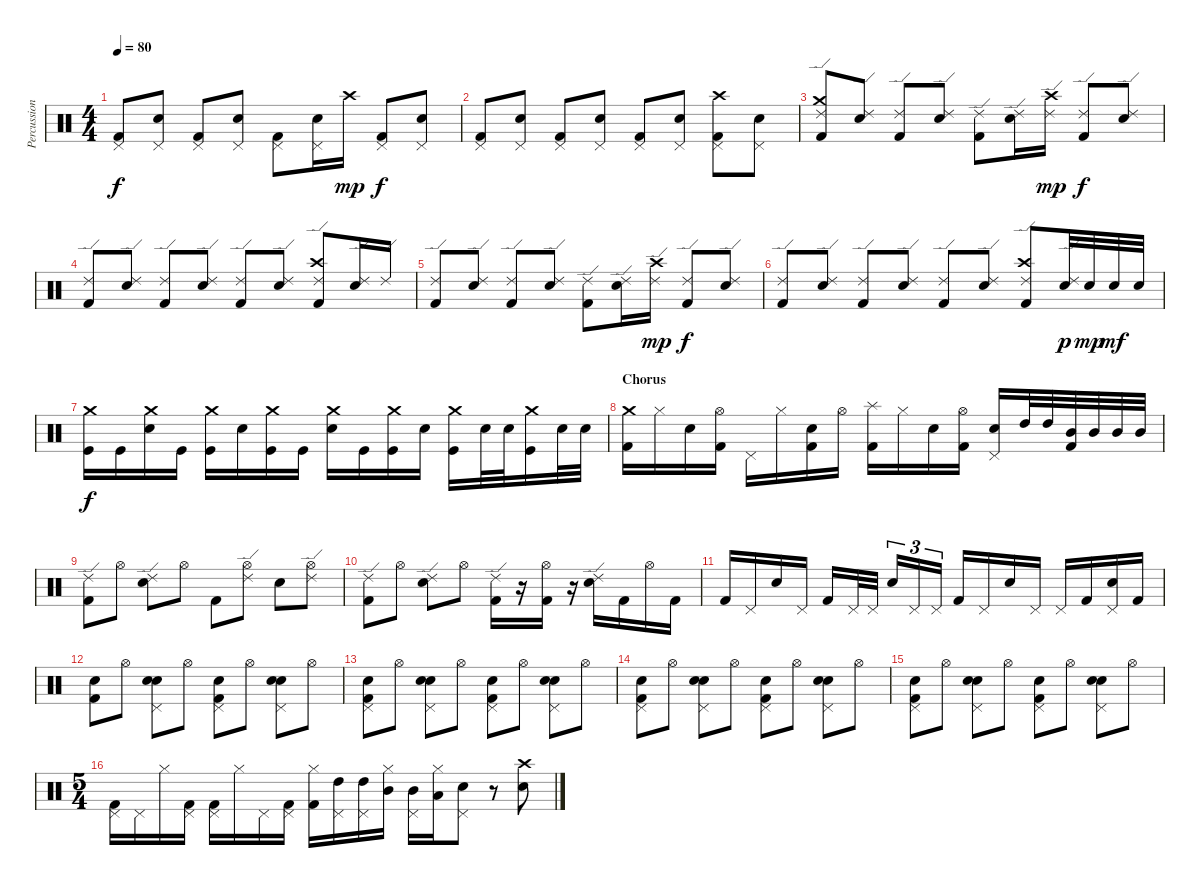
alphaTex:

\track ("Percussion" "Percussion") {instrument percussion}
\staff {score}
\articulation defaults
\ts (4 4)
\tempo 80
\clef neutral
\ks c
("Pedal Hi-Hat (hit)" "Kick (hit) 2").8{dy f} ("Pedal Hi-Hat (hit)" "Electric Snare (hit)").8 ("Pedal Hi-Hat (hit)" "Kick (hit) 2").8 ("Pedal Hi-Hat (hit)" "Electric Snare (hit)").8 ("Pedal Hi-Hat (hit)" "Kick (hit) 2").8 ("Pedal Hi-Hat (hit)" "Electric Snare (hit)").16 "Crash high (hit)".16{dy mp} ("Pedal Hi-Hat (hit)" "Kick (hit) 2").8{dy f} ("Pedal Hi-Hat (hit)" "Electric Snare (hit)").8 |
("Pedal Hi-Hat (hit)" "Kick (hit) 2").8 ("Pedal Hi-Hat (hit)" "Electric Snare (hit)").8 ("Pedal Hi-Hat (hit)" "Kick (hit) 2").8 ("Pedal Hi-Hat (hit)" "Electric Snare (hit)").8 ("Pedal Hi-Hat (hit)" "Kick (hit) 2").8 ("Pedal Hi-Hat (hit)" "Electric Snare (hit)").8 ("Crash high (hit)" "Pedal Hi-Hat (hit)" "Kick (hit) 2").8 ("Pedal Hi-Hat (hit)" "Electric Snare (hit)").8 |
("Crash medium (hit)" "Ride (edge) 2" "Kick (hit) 2").8 ("Ride (edge) 2" "Electric Snare (hit)").8 ("Ride (edge) 2" "Kick (hit) 2").8 ("Ride (edge) 2" "Electric Snare (hit)").8 ("Ride (edge) 2" "Kick (hit) 2").8 ("Ride (edge) 2" "Electric Snare (hit)").16 ("Crash high (hit)" "Ride (edge) 2").16{dy mp} ("Ride (edge) 2" "Kick (hit) 2").8{dy f} ("Ride (edge) 2" "Electric Snare (hit)").8 |
("Ride (edge) 2" "Kick (hit) 2").8 ("Ride (edge) 2" "Electric Snare (hit)").8 ("Ride (edge) 2" "Kick (hit) 2").8 ("Ride (edge) 2" "Electric Snare (hit)").8 ("Ride (edge) 2" "Kick (hit) 2").8 ("Ride (edge) 2" "Electric Snare (hit)").8 ("Crash high (hit)" "Ride (edge) 2" "Kick (hit) 2").8 ("Ride (edge) 2" "Electric Snare (hit)").16 "Ride (edge) 2".16 |
("Ride (edge) 2" "Kick (hit) 2").8 ("Ride (edge) 2" "Electric Snare (hit)").8 ("Ride (edge) 2" "Kick (hit) 2").8 ("Ride (edge) 2" "Electric Snare (hit)").8 ("Ride (edge) 2" "Kick (hit) 2").8 ("Ride (edge) 2" "Electric Snare (hit)").16 ("Crash high (hit)" "Ride (edge) 2").16{dy mp} ("Ride (edge) 2" "Kick (hit) 2").8{dy f} ("Ride (edge) 2" "Electric Snare (hit)").8 |
("Ride (edge) 2" "Kick (hit) 2").8 ("Ride (edge) 2" "Electric Snare (hit)").8 ("Ride (edge) 2" "Kick (hit) 2").8 ("Ride (edge) 2" "Electric Snare (hit)").8 ("Ride (edge) 2" "Kick (hit) 2").8 ("Ride (edge) 2" "Electric Snare (hit)").8 ("Crash high (hit)" "Ride (edge) 2" "Kick (hit) 2").8 ("Ride (edge) 2" "Electric Snare (hit)").32{dy p} "Electric Snare (hit)".32{dy mp} "Electric Snare (hit)".32{dy mf} "Electric Snare (hit)".32 |
("Crash medium (hit)" "Kick (hit)").16{dy f} "Kick (hit)".16 ("Crash medium (hit)" "Electric Snare (hit)").16 "Kick (hit)".16 ("Crash medium (hit)" "Kick (hit)").16 "Electric Snare (hit)".16 ("Crash medium (hit)" "Kick (hit)").16 "Kick (hit)".16 ("Crash medium (hit)" "Electric Snare (hit)").16 "Kick (hit)".16 ("Crash medium (hit)" "Kick (hit)").16 "Electric Snare (hit)".16 ("Crash medium (hit)" "Kick (hit)").16 "Electric Snare (hit)".32 "Electric Snare (hit)".32 ("Crash medium (hit)" "Kick (hit)").16 "Electric Snare (hit)".32 "Electric Snare (hit)".32 |
\section ("" "Chorus")
("Crash medium (hit)" "Kick (hit) 2").16 "Hi-Hat (closed)".16 "Electric Snare (hit)".16 ("Hi-Hat (open)" "Kick (hit) 2").16 "Pedal Hi-Hat (hit)".16 "Hi-Hat (closed)".16 ("Electric Snare (hit)" "Kick (hit) 2").16 "Hi-Hat (open)".16 ("Splash (hit)" "Kick (hit) 2").16 "Hi-Hat (closed)".16 "Electric Snare (hit)".16 ("Hi-Hat (open)" "Kick (hit) 2").16 ("Pedal Hi-Hat (hit)" "Electric Snare (hit)").16 "High Tom (hit)".32 "High Tom (hit)".32 ("Mid Tom (hit)" "Kick (hit) 2").32 "Mid Tom (hit)".32 "Mid Tom (hit)".32 "Mid Tom (hit)".32 |
("Ride (edge) 2" "Kick (hit) 2").8 "Hi-Hat (open)".8 ("Ride (edge) 2" "Electric Snare (hit)").8 "Hi-Hat (open)".8 "Kick (hit) 2".8 ("Ride (edge) 2" "Hi-Hat (open)").8 "Electric Snare (hit)".8 ("Ride (edge) 2" "Hi-Hat (open)").8 |
("Ride (edge) 2" "Kick (hit) 2").8 "Hi-Hat (open)".8 ("Ride (edge) 2" "Electric Snare (hit)").8 "Hi-Hat (open)".8 ("Ride (edge) 2" "Kick (hit) 2").16 r.16 ("Hi-Hat (open)" "Kick (hit) 2").16 r.16 ("Ride (edge) 2" "Electric Snare (hit)").16 "Kick (hit) 2".16 "Hi-Hat (open)".16 "Kick (hit) 2".16 |
"Kick (hit) 2".16 "Pedal Hi-Hat (hit)".16 "Electric Snare (hit)".16 "Pedal Hi-Hat (hit)".16 "Kick (hit) 2".16 "Pedal Hi-Hat (hit)".32 "Pedal Hi-Hat (hit)".32 "Electric Snare (hit)".16{tu (3 2)} "Pedal Hi-Hat (hit)".16{tu (3 2)} "Pedal Hi-Hat (hit)".16{tu (3 2)} "Kick (hit) 2".16 "Pedal Hi-Hat (hit)".16 "Electric Snare (hit)".16 "Pedal Hi-Hat (hit)".16 "Pedal Hi-Hat (hit)".16 "Kick (hit) 2".16 ("Pedal Hi-Hat (hit)" "Electric Snare (hit)").16 "Kick (hit) 2".16 |
("Hand Clap (hit)" "Kick (hit) 2").8 "Hi-Hat (open)".8 ("Hand Clap (hit)" "Pedal Hi-Hat (hit)" "Electric Snare (hit)").8 "Hi-Hat (open)".8 ("Hand Clap (hit)" "Pedal Hi-Hat (hit)" "Kick (hit) 2").8 "Hi-Hat (open)".8 ("Hand Clap (hit)" "Pedal Hi-Hat (hit)" "Electric Snare (hit)").8 "Hi-Hat (open)".8 |
("Hand Clap (hit)" "Pedal Hi-Hat (hit)" "Kick (hit) 2").8 "Hi-Hat (open)".8 ("Hand Clap (hit)" "Pedal Hi-Hat (hit)" "Electric Snare (hit)").8 "Hi-Hat (open)".8 ("Hand Clap (hit)" "Pedal Hi-Hat (hit)" "Kick (hit) 2").8 "Hi-Hat (open)".8 ("Hand Clap (hit)" "Pedal Hi-Hat (hit)" "Electric Snare (hit)").8 "Hi-Hat (open)".8 |
("Hand Clap (hit)" "Pedal Hi-Hat (hit)" "Kick (hit) 2").8 "Hi-Hat (open)".8 ("Hand Clap (hit)" "Pedal Hi-Hat (hit)" "Electric Snare (hit)").8 "Hi-Hat (open)".8 ("Hand Clap (hit)" "Pedal Hi-Hat (hit)" "Kick (hit) 2").8 "Hi-Hat (open)".8 ("Hand Clap (hit)" "Pedal Hi-Hat (hit)" "Electric Snare (hit)").8 "Hi-Hat (open)".8 |
("Hand Clap (hit)" "Pedal Hi-Hat (hit)" "Kick (hit) 2").8 "Hi-Hat (open)".8 ("Hand Clap (hit)" "Pedal Hi-Hat (hit)" "Electric Snare (hit)").8 "Hi-Hat (open)".8 ("Hand Clap (hit)" "Pedal Hi-Hat (hit)" "Kick (hit) 2").8 "Hi-Hat (open)".8 ("Hand Clap (hit)" "Pedal Hi-Hat (hit)" "Electric Snare (hit)").8 "Hi-Hat (open)".8 |
\ts (5 4)
("Pedal Hi-Hat (hit)" "Kick (hit) 2").16 "Pedal Hi-Hat (hit)".16 "Hi-Hat (closed)".16 ("Pedal Hi-Hat (hit)" "Kick (hit) 2").16 ("Pedal Hi-Hat (hit)" "Kick (hit) 2").16 "Hi-Hat (closed)".16 "Pedal Hi-Hat (hit)".16 ("Pedal Hi-Hat (hit)" "Kick (hit) 2").16 ("Hi-Hat (closed)" "Kick (hit) 2").16 ("Pedal Hi-Hat (hit)" "High Tom (hit)").16 ("Pedal Hi-Hat (hit)" "High Tom (hit)").16 ("Hi-Hat (closed)" "Mid Tom (hit)").16 ("Pedal Hi-Hat (hit)" "Mid Tom (hit)").16 ("Hi-Hat (closed)" "Low Tom (hit)").16 ("Pedal Hi-Hat (hit)" "Electric Snare (hit)").8 r.8 ("Crash high (hit)" "Electric Snare (hit)").8
